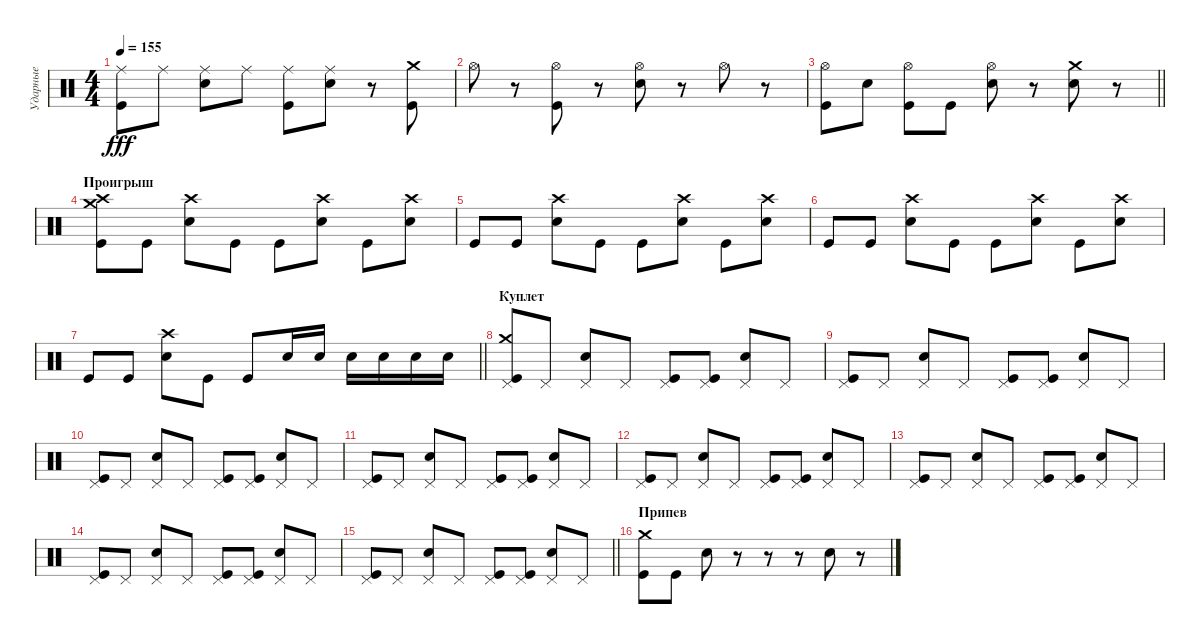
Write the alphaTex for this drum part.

\track ("Ударные" "Ударные") {instrument percussion}
\staff {score}
\articulation defaults
\ts (4 4)
\tempo 155
\clef neutral
\ks c
("Ride (middle)" "Kick (hit)").8{dy fff} "Ride (middle)".8 ("Ride (middle)" "Electric Snare (hit)").8 "Ride (middle)".8 ("Ride (middle)" "Kick (hit)").8 ("Ride (middle)" "Electric Snare (hit)").8 r.8 ("Crash medium (hit)" "Kick (hit)").8 |
"Hi-Hat (open)".8 r.8 ("Hi-Hat (open)" "Kick (hit)").8 r.8 ("Hi-Hat (open)" "Electric Snare (hit)").8 r.8 "Hi-Hat (open)".8 r.8 |
\barLineRight lightlight
("Hi-Hat (open)" "Kick (hit)").8 "Electric Snare (hit)".8 ("Hi-Hat (open)" "Kick (hit)").8 "Kick (hit)".8 ("Hi-Hat (open)" "Electric Snare (hit)").8 r.8 ("Crash medium (hit)" "Electric Snare (hit)").8 r.8 |
\section ("" "Проигрыш")
("Crash high (hit)" "Kick (hit)" "Crash medium (hit)").8 "Kick (hit)".8 ("Electric Snare (hit)" "Crash high (hit)").8 "Kick (hit)".8 "Kick (hit)".8 ("Electric Snare (hit)" "Crash high (hit)").8 "Kick (hit)".8 ("Electric Snare (hit)" "Crash high (hit)").8 |
"Kick (hit)".8 "Kick (hit)".8 ("Electric Snare (hit)" "Crash high (hit)").8 "Kick (hit)".8 "Kick (hit)".8 ("Electric Snare (hit)" "Crash high (hit)").8 "Kick (hit)".8 ("Electric Snare (hit)" "Crash high (hit)").8 |
"Kick (hit)".8 "Kick (hit)".8 ("Electric Snare (hit)" "Crash high (hit)").8 "Kick (hit)".8 "Kick (hit)".8 ("Electric Snare (hit)" "Crash high (hit)").8 "Kick (hit)".8 ("Electric Snare (hit)" "Crash high (hit)").8 |
\barLineRight lightlight "Kick (hit)".8 "Kick (hit)".8
("Electric Snare (hit)" "Crash high (hit)").8 "Kick (hit)".8 "Kick (hit)".8 "Electric Snare (hit)".16 "Electric Snare (hit)".16 "Electric Snare (hit)".16 "Electric Snare (hit)".16 "Electric Snare (hit)".16 "Electric Snare (hit)".16 |
\section ("" "Куплет")
("Pedal Hi-Hat (hit)" "Kick (hit)" "Crash medium (hit)").8 "Pedal Hi-Hat (hit)".8 ("Pedal Hi-Hat (hit)" "Electric Snare (hit)").8 "Pedal Hi-Hat (hit)".8 ("Pedal Hi-Hat (hit)" "Kick (hit)").8 ("Pedal Hi-Hat (hit)" "Kick (hit)").8 ("Pedal Hi-Hat (hit)" "Electric Snare (hit)").8 "Pedal Hi-Hat (hit)".8 |
("Pedal Hi-Hat (hit)" "Kick (hit)").8 "Pedal Hi-Hat (hit)".8 ("Pedal Hi-Hat (hit)" "Electric Snare (hit)").8 "Pedal Hi-Hat (hit)".8 ("Pedal Hi-Hat (hit)" "Kick (hit)").8 ("Pedal Hi-Hat (hit)" "Kick (hit)").8 ("Pedal Hi-Hat (hit)" "Electric Snare (hit)").8 "Pedal Hi-Hat (hit)".8 |
("Pedal Hi-Hat (hit)" "Kick (hit)").8 "Pedal Hi-Hat (hit)".8 ("Pedal Hi-Hat (hit)" "Electric Snare (hit)").8 "Pedal Hi-Hat (hit)".8 ("Pedal Hi-Hat (hit)" "Kick (hit)").8 ("Pedal Hi-Hat (hit)" "Kick (hit)").8 ("Pedal Hi-Hat (hit)" "Electric Snare (hit)").8 "Pedal Hi-Hat (hit)".8 |
("Pedal Hi-Hat (hit)" "Kick (hit)").8 "Pedal Hi-Hat (hit)".8 ("Pedal Hi-Hat (hit)" "Electric Snare (hit)").8 "Pedal Hi-Hat (hit)".8 ("Pedal Hi-Hat (hit)" "Kick (hit)").8 ("Pedal Hi-Hat (hit)" "Kick (hit)").8 ("Pedal Hi-Hat (hit)" "Electric Snare (hit)").8 "Pedal Hi-Hat (hit)".8 |
("Pedal Hi-Hat (hit)" "Kick (hit)").8 "Pedal Hi-Hat (hit)".8 ("Pedal Hi-Hat (hit)" "Electric Snare (hit)").8 "Pedal Hi-Hat (hit)".8 ("Pedal Hi-Hat (hit)" "Kick (hit)").8 ("Pedal Hi-Hat (hit)" "Kick (hit)").8 ("Pedal Hi-Hat (hit)" "Electric Snare (hit)").8 "Pedal Hi-Hat (hit)".8 |
("Pedal Hi-Hat (hit)" "Kick (hit)").8 "Pedal Hi-Hat (hit)".8 ("Pedal Hi-Hat (hit)" "Electric Snare (hit)").8 "Pedal Hi-Hat (hit)".8 ("Pedal Hi-Hat (hit)" "Kick (hit)").8 ("Pedal Hi-Hat (hit)" "Kick (hit)").8 ("Pedal Hi-Hat (hit)" "Electric Snare (hit)").8 "Pedal Hi-Hat (hit)".8 |
("Pedal Hi-Hat (hit)" "Kick (hit)").8 "Pedal Hi-Hat (hit)".8 ("Pedal Hi-Hat (hit)" "Electric Snare (hit)").8 "Pedal Hi-Hat (hit)".8 ("Pedal Hi-Hat (hit)" "Kick (hit)").8 ("Pedal Hi-Hat (hit)" "Kick (hit)").8 ("Pedal Hi-Hat (hit)" "Electric Snare (hit)").8 "Pedal Hi-Hat (hit)".8 |
\barLineRight lightlight
("Pedal Hi-Hat (hit)" "Kick (hit)").8 "Pedal Hi-Hat (hit)".8 ("Pedal Hi-Hat (hit)" "Electric Snare (hit)").8 "Pedal Hi-Hat (hit)".8 ("Pedal Hi-Hat (hit)" "Kick (hit)").8 ("Pedal Hi-Hat (hit)" "Kick (hit)").8 ("Pedal Hi-Hat (hit)" "Electric Snare (hit)").8 "Pedal Hi-Hat (hit)".8 |
\section ("" "Припев")
("Kick (hit)" "Crash medium (hit)").8 "Kick (hit)".8 "Electric Snare (hit)".8 r.8 r.8 r.8 "Electric Snare (hit)".8 r.8
